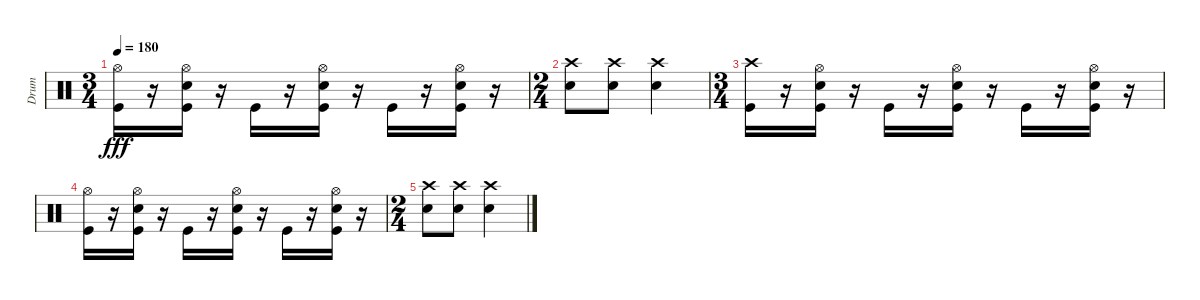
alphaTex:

\track ("Drum" "Drum") {instrument percussion}
\staff {score}
\articulation defaults
\ts (3 4)
\tempo 180
\clef neutral
\ks c
("Hi-Hat (open)" "Kick (hit)").16{dy fff} r.16 ("Hi-Hat (open)" "Snare (hit) 2" "Kick (hit)").16 r.16 "Kick (hit)".16 r.16 ("Hi-Hat (open)" "Snare (hit) 2" "Kick (hit)").16 r.16 "Kick (hit)".16 r.16 ("Hi-Hat (open)" "Snare (hit) 2" "Kick (hit)").16 r.16 |
\ts (2 4)
("Crash high (hit)" "Snare (hit) 2").8 ("Crash high (hit)" "Snare (hit) 2").8 ("Crash high (hit)" "Snare (hit) 2").4 |
\ts (3 4)
("Crash high (hit)" "Kick (hit)").16 r.16 ("Hi-Hat (open)" "Snare (hit) 2" "Kick (hit)").16 r.16 "Kick (hit)".16 r.16 ("Hi-Hat (open)" "Snare (hit) 2" "Kick (hit)").16 r.16 "Kick (hit)".16 r.16 ("Hi-Hat (open)" "Snare (hit) 2" "Kick (hit)").16 r.16 |
("Hi-Hat (open)" "Kick (hit)").16 r.16 ("Hi-Hat (open)" "Snare (hit) 2" "Kick (hit)").16 r.16 "Kick (hit)".16 r.16 ("Hi-Hat (open)" "Snare (hit) 2" "Kick (hit)").16 r.16 "Kick (hit)".16 r.16 ("Hi-Hat (open)" "Snare (hit) 2" "Kick (hit)").16 r.16 |
\ts (2 4)
("Crash high (hit)" "Snare (hit) 2").8 ("Crash high (hit)" "Snare (hit) 2").8 ("Crash high (hit)" "Snare (hit) 2").4
